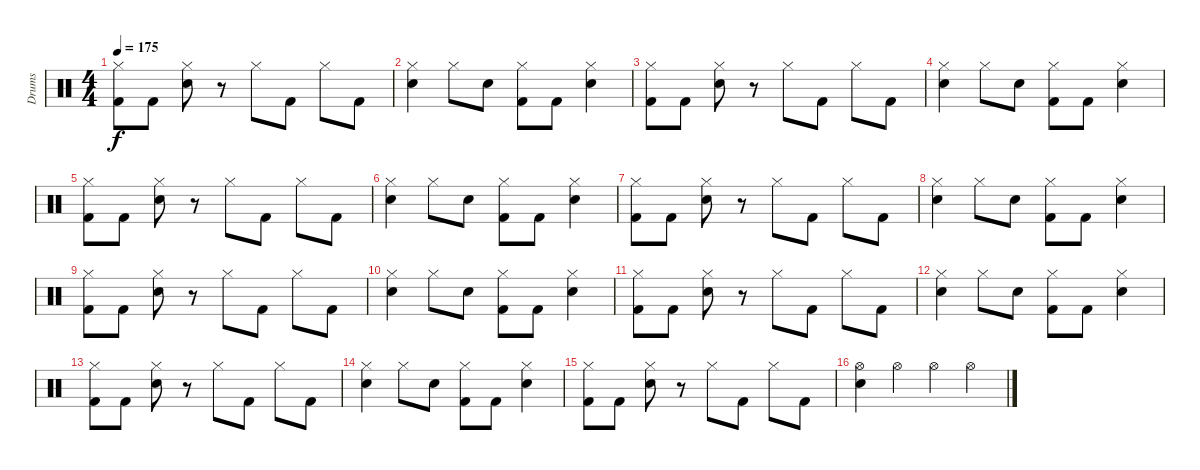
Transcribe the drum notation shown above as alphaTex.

\track ("Drums" "Drums") {instrument percussion}
\staff {score}
\articulation defaults
\ts (4 4)
\tempo 175
\clef neutral
\ks c
("Hi-Hat (closed)" "Kick (hit) 2").8{dy f} "Kick (hit) 2".8 ("Hi-Hat (closed)" "Electric Snare (hit)").8 r.8 "Hi-Hat (closed)".8 "Kick (hit) 2".8 "Hi-Hat (closed)".8 "Kick (hit) 2".8 |
("Hi-Hat (closed)" "Electric Snare (hit)").4 "Hi-Hat (closed)".8 "Electric Snare (hit)".8 ("Hi-Hat (closed)" "Kick (hit) 2").8 "Kick (hit) 2".8 ("Hi-Hat (closed)" "Electric Snare (hit)").4 |
("Hi-Hat (closed)" "Kick (hit) 2").8 "Kick (hit) 2".8 ("Hi-Hat (closed)" "Electric Snare (hit)").8 r.8 "Hi-Hat (closed)".8 "Kick (hit) 2".8 "Hi-Hat (closed)".8 "Kick (hit) 2".8 |
("Hi-Hat (closed)" "Electric Snare (hit)").4 "Hi-Hat (closed)".8 "Electric Snare (hit)".8 ("Hi-Hat (closed)" "Kick (hit) 2").8 "Kick (hit) 2".8 ("Hi-Hat (closed)" "Electric Snare (hit)").4 |
("Hi-Hat (closed)" "Kick (hit) 2").8 "Kick (hit) 2".8 ("Hi-Hat (closed)" "Electric Snare (hit)").8 r.8 "Hi-Hat (closed)".8 "Kick (hit) 2".8 "Hi-Hat (closed)".8 "Kick (hit) 2".8 |
("Hi-Hat (closed)" "Electric Snare (hit)").4 "Hi-Hat (closed)".8 "Electric Snare (hit)".8 ("Hi-Hat (closed)" "Kick (hit) 2").8 "Kick (hit) 2".8 ("Hi-Hat (closed)" "Electric Snare (hit)").4 |
("Hi-Hat (closed)" "Kick (hit) 2").8 "Kick (hit) 2".8 ("Hi-Hat (closed)" "Electric Snare (hit)").8 r.8 "Hi-Hat (closed)".8 "Kick (hit) 2".8 "Hi-Hat (closed)".8 "Kick (hit) 2".8 |
("Hi-Hat (closed)" "Electric Snare (hit)").4 "Hi-Hat (closed)".8 "Electric Snare (hit)".8 ("Hi-Hat (closed)" "Kick (hit) 2").8 "Kick (hit) 2".8 ("Hi-Hat (closed)" "Electric Snare (hit)").4 |
("Hi-Hat (closed)" "Kick (hit) 2").8 "Kick (hit) 2".8 ("Hi-Hat (closed)" "Electric Snare (hit)").8 r.8 "Hi-Hat (closed)".8 "Kick (hit) 2".8 "Hi-Hat (closed)".8 "Kick (hit) 2".8 |
("Hi-Hat (closed)" "Electric Snare (hit)").4 "Hi-Hat (closed)".8 "Electric Snare (hit)".8 ("Hi-Hat (closed)" "Kick (hit) 2").8 "Kick (hit) 2".8 ("Hi-Hat (closed)" "Electric Snare (hit)").4 |
("Hi-Hat (closed)" "Kick (hit) 2").8 "Kick (hit) 2".8 ("Hi-Hat (closed)" "Electric Snare (hit)").8 r.8 "Hi-Hat (closed)".8 "Kick (hit) 2".8 "Hi-Hat (closed)".8 "Kick (hit) 2".8 |
("Hi-Hat (closed)" "Electric Snare (hit)").4 "Hi-Hat (closed)".8 "Electric Snare (hit)".8 ("Hi-Hat (closed)" "Kick (hit) 2").8 "Kick (hit) 2".8 ("Hi-Hat (closed)" "Electric Snare (hit)").4 |
("Hi-Hat (closed)" "Kick (hit) 2").8 "Kick (hit) 2".8 ("Hi-Hat (closed)" "Electric Snare (hit)").8 r.8 "Hi-Hat (closed)".8 "Kick (hit) 2".8 "Hi-Hat (closed)".8 "Kick (hit) 2".8 |
("Hi-Hat (closed)" "Electric Snare (hit)").4 "Hi-Hat (closed)".8 "Electric Snare (hit)".8 ("Hi-Hat (closed)" "Kick (hit) 2").8 "Kick (hit) 2".8 ("Hi-Hat (closed)" "Electric Snare (hit)").4 |
("Hi-Hat (closed)" "Kick (hit) 2").8 "Kick (hit) 2".8 ("Hi-Hat (closed)" "Electric Snare (hit)").8 r.8 "Hi-Hat (closed)".8 "Kick (hit) 2".8 "Hi-Hat (closed)".8 "Kick (hit) 2".8 |
("Hi-Hat (open)" "Electric Snare (hit)").4 "Hi-Hat (open)".4 "Hi-Hat (open)".4 "Hi-Hat (open)".4
